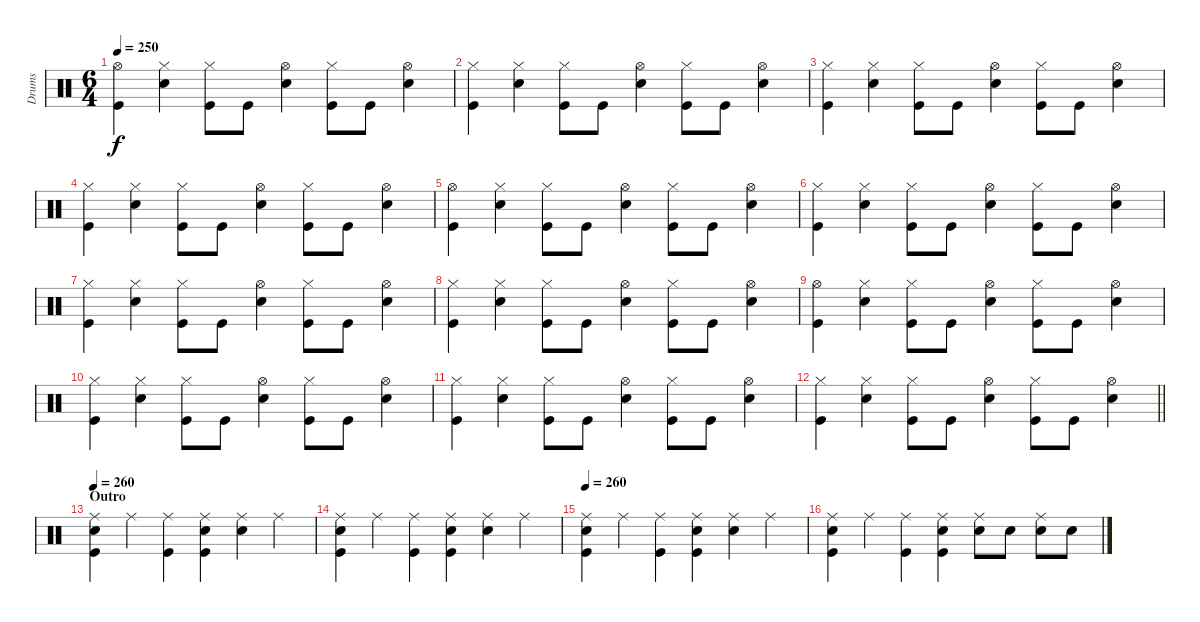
\track ("Drums" "Drums") {instrument percussion}
\staff {score}
\articulation defaults
\ts (6 4)
\tempo 250
\clef neutral
\ks c
("Hi-Hat (open)" "Kick (hit)").4{dy f} ("Hi-Hat (closed)" "Snare (hit) 2").4 ("Hi-Hat (closed)" "Kick (hit)").8 "Kick (hit)".8 ("Hi-Hat (open)" "Snare (hit) 2").4 ("Hi-Hat (closed)" "Kick (hit)").8 "Kick (hit)".8 ("Hi-Hat (open)" "Snare (hit) 2").4 |
("Hi-Hat (closed)" "Kick (hit)").4 ("Hi-Hat (closed)" "Snare (hit) 2").4 ("Hi-Hat (closed)" "Kick (hit)").8 "Kick (hit)".8 ("Hi-Hat (open)" "Snare (hit) 2").4 ("Hi-Hat (closed)" "Kick (hit)").8 "Kick (hit)".8 ("Hi-Hat (open)" "Snare (hit) 2").4 |
("Hi-Hat (closed)" "Kick (hit)").4 ("Hi-Hat (closed)" "Snare (hit) 2").4 ("Hi-Hat (closed)" "Kick (hit)").8 "Kick (hit)".8 ("Hi-Hat (open)" "Snare (hit) 2").4 ("Hi-Hat (closed)" "Kick (hit)").8 "Kick (hit)".8 ("Hi-Hat (open)" "Snare (hit) 2").4 |
("Hi-Hat (closed)" "Kick (hit)").4 ("Hi-Hat (closed)" "Snare (hit) 2").4 ("Hi-Hat (closed)" "Kick (hit)").8 "Kick (hit)".8 ("Hi-Hat (open)" "Snare (hit) 2").4 ("Hi-Hat (closed)" "Kick (hit)").8 "Kick (hit)".8 ("Hi-Hat (open)" "Snare (hit) 2").4 |
("Hi-Hat (open)" "Kick (hit)").4 ("Hi-Hat (closed)" "Snare (hit) 2").4 ("Hi-Hat (closed)" "Kick (hit)").8 "Kick (hit)".8 ("Hi-Hat (open)" "Snare (hit) 2").4 ("Hi-Hat (closed)" "Kick (hit)").8 "Kick (hit)".8 ("Hi-Hat (open)" "Snare (hit) 2").4 |
("Hi-Hat (closed)" "Kick (hit)").4 ("Hi-Hat (closed)" "Snare (hit) 2").4 ("Hi-Hat (closed)" "Kick (hit)").8 "Kick (hit)".8 ("Hi-Hat (open)" "Snare (hit) 2").4 ("Hi-Hat (closed)" "Kick (hit)").8 "Kick (hit)".8 ("Hi-Hat (open)" "Snare (hit) 2").4 |
("Hi-Hat (closed)" "Kick (hit)").4 ("Hi-Hat (closed)" "Snare (hit) 2").4 ("Hi-Hat (closed)" "Kick (hit)").8 "Kick (hit)".8 ("Hi-Hat (open)" "Snare (hit) 2").4 ("Hi-Hat (closed)" "Kick (hit)").8 "Kick (hit)".8 ("Hi-Hat (open)" "Snare (hit) 2").4 |
("Hi-Hat (closed)" "Kick (hit)").4 ("Hi-Hat (closed)" "Snare (hit) 2").4 ("Hi-Hat (closed)" "Kick (hit)").8 "Kick (hit)".8 ("Hi-Hat (open)" "Snare (hit) 2").4 ("Hi-Hat (closed)" "Kick (hit)").8 "Kick (hit)".8 ("Hi-Hat (open)" "Snare (hit) 2").4 |
("Hi-Hat (open)" "Kick (hit)").4 ("Hi-Hat (closed)" "Snare (hit) 2").4 ("Hi-Hat (closed)" "Kick (hit)").8 "Kick (hit)".8 ("Hi-Hat (open)" "Snare (hit) 2").4 ("Hi-Hat (closed)" "Kick (hit)").8 "Kick (hit)".8 ("Hi-Hat (open)" "Snare (hit) 2").4 |
("Hi-Hat (closed)" "Kick (hit)").4 ("Hi-Hat (closed)" "Snare (hit) 2").4 ("Hi-Hat (closed)" "Kick (hit)").8 "Kick (hit)".8 ("Hi-Hat (open)" "Snare (hit) 2").4 ("Hi-Hat (closed)" "Kick (hit)").8 "Kick (hit)".8 ("Hi-Hat (open)" "Snare (hit) 2").4 |
("Hi-Hat (closed)" "Kick (hit)").4 ("Hi-Hat (closed)" "Snare (hit) 2").4 ("Hi-Hat (closed)" "Kick (hit)").8 "Kick (hit)".8 ("Hi-Hat (open)" "Snare (hit) 2").4 ("Hi-Hat (closed)" "Kick (hit)").8 "Kick (hit)".8 ("Hi-Hat (open)" "Snare (hit) 2").4 |
\barLineRight lightlight
("Hi-Hat (closed)" "Kick (hit)").4 ("Hi-Hat (closed)" "Snare (hit) 2").4 ("Hi-Hat (closed)" "Kick (hit)").8 "Kick (hit)".8 ("Hi-Hat (open)" "Snare (hit) 2").4 ("Hi-Hat (closed)" "Kick (hit)").8 "Kick (hit)".8 ("Hi-Hat (open)" "Snare (hit) 2").4 |
\section ("" "Outro")
\tempo 260
("Ride (middle)" "Snare (hit) 2" "Kick (hit)").4 "Ride (middle)".4 ("Ride (middle)" "Kick (hit)").4 ("Ride (middle)" "Snare (hit) 2" "Kick (hit)").4 ("Ride (middle)" "Snare (hit) 2").4 "Ride (middle)".4 |
("Ride (middle)" "Snare (hit) 2" "Kick (hit)").4 "Ride (middle)".4 ("Ride (middle)" "Kick (hit)").4 ("Ride (middle)" "Snare (hit) 2" "Kick (hit)").4 ("Ride (middle)" "Snare (hit) 2").4 "Ride (middle)".4 |
\tempo 260
("Ride (middle)" "Snare (hit) 2" "Kick (hit)").4 "Ride (middle)".4 ("Ride (middle)" "Kick (hit)").4 ("Ride (middle)" "Snare (hit) 2" "Kick (hit)").4 ("Ride (middle)" "Snare (hit) 2").4 "Ride (middle)".4 |
("Ride (middle)" "Snare (hit) 2" "Kick (hit)").4 "Ride (middle)".4 ("Ride (middle)" "Kick (hit)").4 ("Ride (middle)" "Snare (hit) 2" "Kick (hit)").4 ("Ride (middle)" "Snare (hit) 2").8 "Snare (hit) 2".8 ("Ride (middle)" "Snare (hit) 2").8 "Snare (hit) 2".8
